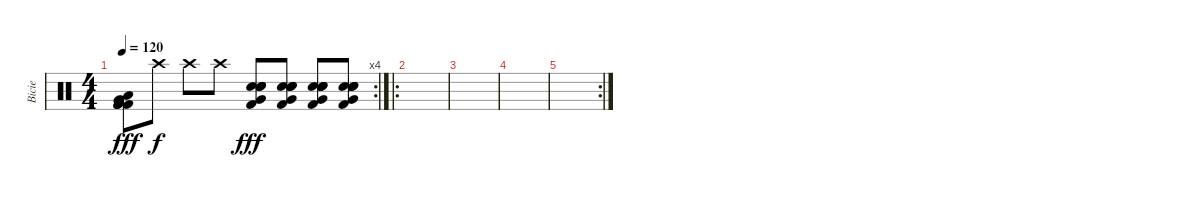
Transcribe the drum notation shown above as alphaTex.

\track ("Bicie" "Bicie") {instrument percussion}
\staff {score}
\articulation defaults
\rc 4
\ts (4 4)
\tempo 120
\clef neutral
\ks c
("Very Low Tom (hit)" "Kick (hit) 2" "Kick (hit) 2" "Kick (hit) 2" "Kick (hit) 2" "Low Floor Tom (hit)").8{dy fff} "Crash high (hit)".8{dy f} "Crash high (hit)".8 "Crash high (hit)".8 ("Very Low Tom (hit)" "Electric Snare (hit)" "Electric Snare (hit)" "Electric Snare (hit)" "Electric Snare (hit)" "Kick (hit) 2").8{dy fff} ("Very Low Tom (hit)" "Electric Snare (hit)" "Electric Snare (hit)" "Electric Snare (hit)" "Electric Snare (hit)" "Kick (hit) 2").8 ("Very Low Tom (hit)" "Electric Snare (hit)" "Electric Snare (hit)" "Electric Snare (hit)" "Electric Snare (hit)" "Kick (hit) 2").8 ("Very Low Tom (hit)" "Electric Snare (hit)" "Electric Snare (hit)" "Electric Snare (hit)" "Electric Snare (hit)" "Kick (hit) 2").8 |
\ro
|
|
|
\rc 2
